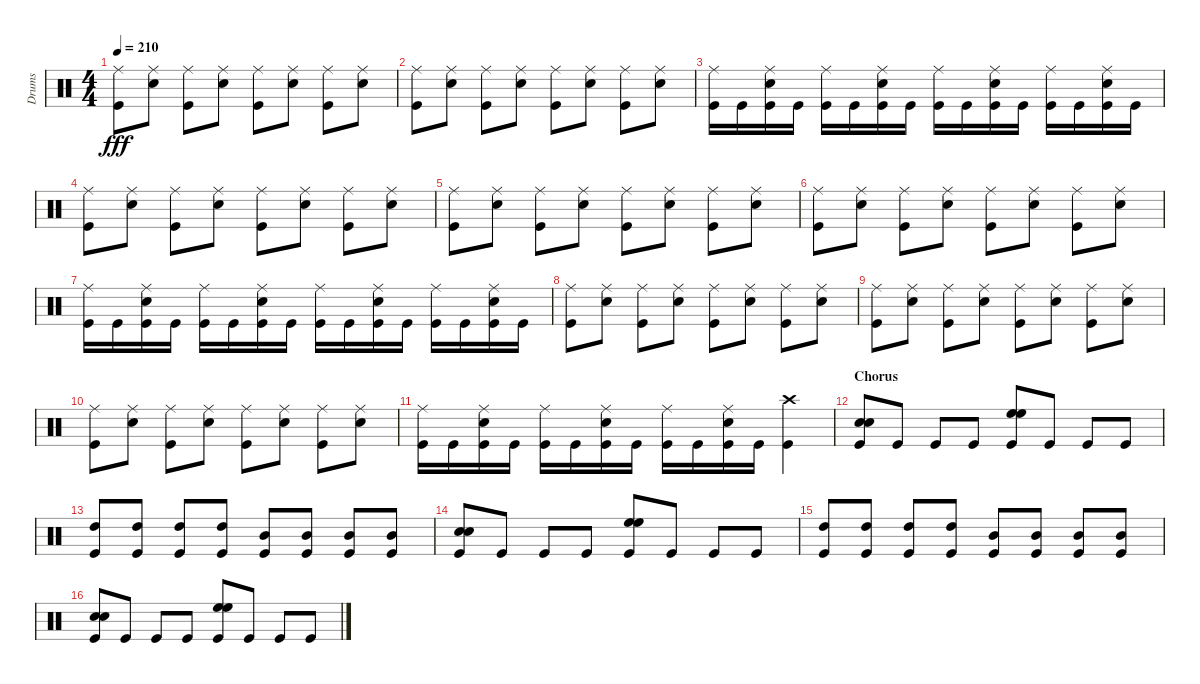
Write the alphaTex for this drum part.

\track ("Drums" "Drums") {instrument percussion}
\staff {score}
\articulation defaults
\ts (4 4)
\tempo 210
\clef neutral
\ks c
("Ride (middle)" "Kick (hit)").8{dy fff} ("Ride (middle)" "Snare (hit) 2").8 ("Ride (middle)" "Kick (hit)").8 ("Ride (middle)" "Snare (hit) 2").8 ("Ride (middle)" "Kick (hit)").8 ("Ride (middle)" "Snare (hit) 2").8 ("Ride (middle)" "Kick (hit)").8 ("Ride (middle)" "Snare (hit) 2").8 |
("Ride (middle)" "Kick (hit)").8 ("Ride (middle)" "Snare (hit) 2").8 ("Ride (middle)" "Kick (hit)").8 ("Ride (middle)" "Snare (hit) 2").8 ("Ride (middle)" "Kick (hit)").8 ("Ride (middle)" "Snare (hit) 2").8 ("Ride (middle)" "Kick (hit)").8 ("Ride (middle)" "Snare (hit) 2").8 |
("Ride (middle)" "Kick (hit)").16 "Kick (hit)".16 ("Ride (middle)" "Snare (hit) 2" "Kick (hit)").16 "Kick (hit)".16 ("Ride (middle)" "Kick (hit)").16 "Kick (hit)".16 ("Ride (middle)" "Snare (hit) 2" "Kick (hit)").16 "Kick (hit)".16 ("Ride (middle)" "Kick (hit)").16 "Kick (hit)".16 ("Ride (middle)" "Snare (hit) 2" "Kick (hit)").16 "Kick (hit)".16 ("Ride (middle)" "Kick (hit)").16 "Kick (hit)".16 ("Ride (middle)" "Snare (hit) 2" "Kick (hit)").16 "Kick (hit)".16 |
("Ride (middle)" "Kick (hit)").8 ("Ride (middle)" "Snare (hit) 2").8 ("Ride (middle)" "Kick (hit)").8 ("Ride (middle)" "Snare (hit) 2").8 ("Ride (middle)" "Kick (hit)").8 ("Ride (middle)" "Snare (hit) 2").8 ("Ride (middle)" "Kick (hit)").8 ("Ride (middle)" "Snare (hit) 2").8 |
("Ride (middle)" "Kick (hit)").8 ("Ride (middle)" "Snare (hit) 2").8 ("Ride (middle)" "Kick (hit)").8 ("Ride (middle)" "Snare (hit) 2").8 ("Ride (middle)" "Kick (hit)").8 ("Ride (middle)" "Snare (hit) 2").8 ("Ride (middle)" "Kick (hit)").8 ("Ride (middle)" "Snare (hit) 2").8 |
("Ride (middle)" "Kick (hit)").8 ("Ride (middle)" "Snare (hit) 2").8 ("Ride (middle)" "Kick (hit)").8 ("Ride (middle)" "Snare (hit) 2").8 ("Ride (middle)" "Kick (hit)").8 ("Ride (middle)" "Snare (hit) 2").8 ("Ride (middle)" "Kick (hit)").8 ("Ride (middle)" "Snare (hit) 2").8 |
("Ride (middle)" "Kick (hit)").16 "Kick (hit)".16 ("Ride (middle)" "Snare (hit) 2" "Kick (hit)").16 "Kick (hit)".16 ("Ride (middle)" "Kick (hit)").16 "Kick (hit)".16 ("Ride (middle)" "Snare (hit) 2" "Kick (hit)").16 "Kick (hit)".16 ("Ride (middle)" "Kick (hit)").16 "Kick (hit)".16 ("Ride (middle)" "Snare (hit) 2" "Kick (hit)").16 "Kick (hit)".16 ("Ride (middle)" "Kick (hit)").16 "Kick (hit)".16 ("Ride (middle)" "Snare (hit) 2" "Kick (hit)").16 "Kick (hit)".16 |
("Ride (middle)" "Kick (hit)").8 ("Ride (middle)" "Snare (hit) 2").8 ("Ride (middle)" "Kick (hit)").8 ("Ride (middle)" "Snare (hit) 2").8 ("Ride (middle)" "Kick (hit)").8 ("Ride (middle)" "Snare (hit) 2").8 ("Ride (middle)" "Kick (hit)").8 ("Ride (middle)" "Snare (hit) 2").8 |
("Ride (middle)" "Kick (hit)").8 ("Ride (middle)" "Snare (hit) 2").8 ("Ride (middle)" "Kick (hit)").8 ("Ride (middle)" "Snare (hit) 2").8 ("Ride (middle)" "Kick (hit)").8 ("Ride (middle)" "Snare (hit) 2").8 ("Ride (middle)" "Kick (hit)").8 ("Ride (middle)" "Snare (hit) 2").8 |
("Ride (middle)" "Kick (hit)").8 ("Ride (middle)" "Snare (hit) 2").8 ("Ride (middle)" "Kick (hit)").8 ("Ride (middle)" "Snare (hit) 2").8 ("Ride (middle)" "Kick (hit)").8 ("Ride (middle)" "Snare (hit) 2").8 ("Ride (middle)" "Kick (hit)").8 ("Ride (middle)" "Snare (hit) 2").8 |
("Ride (middle)" "Kick (hit)").16 "Kick (hit)".16 ("Ride (middle)" "Snare (hit) 2" "Kick (hit)").16 "Kick (hit)".16 ("Ride (middle)" "Kick (hit)").16 "Kick (hit)".16 ("Ride (middle)" "Snare (hit) 2" "Kick (hit)").16 "Kick (hit)".16 ("Ride (middle)" "Kick (hit)").16 "Kick (hit)".16 ("Ride (middle)" "Snare (hit) 2" "Kick (hit)").16 "Kick (hit)".16 ("Crash high (hit)" "Kick (hit)").4 |
\section ("" "Chorus")
("Snare (hit) 2" "Snare (hit) 2" "Kick (hit)").8 "Kick (hit)".8 "Kick (hit)".8 "Kick (hit)".8 ("High Floor Tom (hit)" "High Floor Tom (hit)" "Kick (hit)").8 "Kick (hit)".8 "Kick (hit)".8 "Kick (hit)".8 |
("High Tom (hit)" "Kick (hit)").8 ("High Tom (hit)" "Kick (hit)").8 ("High Tom (hit)" "Kick (hit)").8 ("High Tom (hit)" "Kick (hit)").8 ("Mid Tom (hit)" "Kick (hit)").8 ("Mid Tom (hit)" "Kick (hit)").8 ("Mid Tom (hit)" "Kick (hit)").8 ("Mid Tom (hit)" "Kick (hit)").8 |
("Snare (hit) 2" "Snare (hit) 2" "Kick (hit)").8 "Kick (hit)".8 "Kick (hit)".8 "Kick (hit)".8 ("High Floor Tom (hit)" "High Floor Tom (hit)" "Kick (hit)").8 "Kick (hit)".8 "Kick (hit)".8 "Kick (hit)".8 |
("High Tom (hit)" "Kick (hit)").8 ("High Tom (hit)" "Kick (hit)").8 ("High Tom (hit)" "Kick (hit)").8 ("High Tom (hit)" "Kick (hit)").8 ("Mid Tom (hit)" "Kick (hit)").8 ("Mid Tom (hit)" "Kick (hit)").8 ("Mid Tom (hit)" "Kick (hit)").8 ("Mid Tom (hit)" "Kick (hit)").8 |
("Snare (hit) 2" "Snare (hit) 2" "Kick (hit)").8 "Kick (hit)".8 "Kick (hit)".8 "Kick (hit)".8 ("High Floor Tom (hit)" "High Floor Tom (hit)" "Kick (hit)").8 "Kick (hit)".8 "Kick (hit)".8 "Kick (hit)".8
